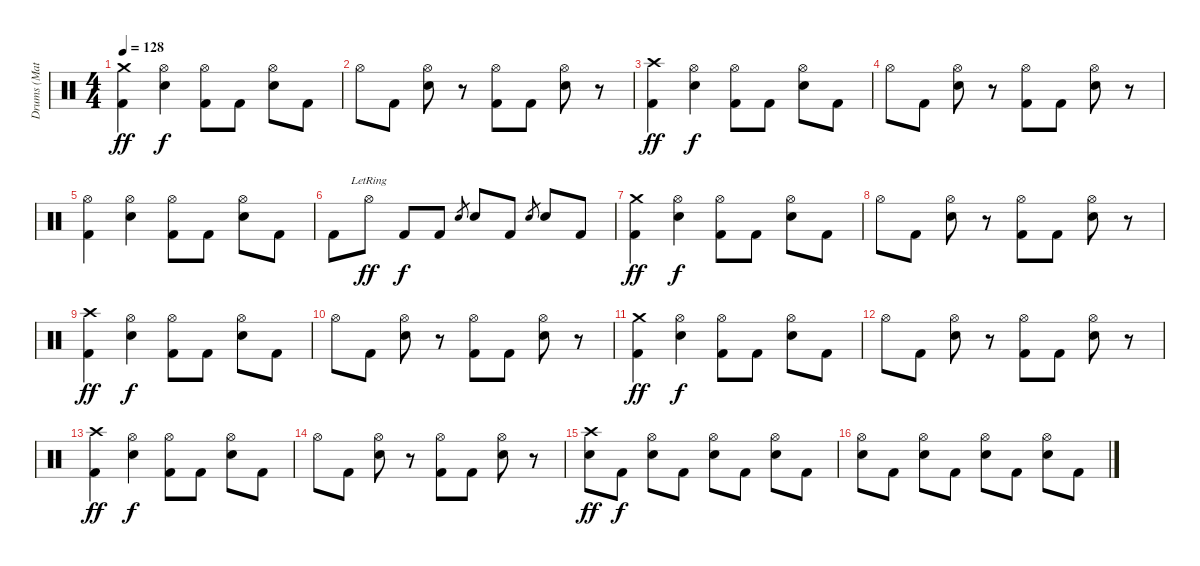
\track ("Drums (Matt Sorum)" "Drums (Mat") {instrument percussion}
\staff {score}
\articulation defaults
\ts (4 4)
\tempo 128
\clef neutral
\ks c
("Crash medium (hit)" "Kick (hit) 2").4{dy ff} ("Hi-Hat (open)" "Snare (hit) 2").4{dy f} ("Hi-Hat (open)" "Kick (hit) 2").8 "Kick (hit) 2".8 ("Hi-Hat (open)" "Snare (hit) 2").8 "Kick (hit) 2".8 |
"Hi-Hat (open)".8 "Kick (hit) 2".8 ("Hi-Hat (open)" "Snare (hit) 2").8 r.8 ("Hi-Hat (open)" "Kick (hit) 2").8 "Kick (hit) 2".8 ("Hi-Hat (open)" "Snare (hit) 2").8 r.8 |
("Crash high (hit)" "Kick (hit) 2").4{dy ff} ("Hi-Hat (open)" "Snare (hit) 2").4{dy f} ("Hi-Hat (open)" "Kick (hit) 2").8 "Kick (hit) 2".8 ("Hi-Hat (open)" "Snare (hit) 2").8 "Kick (hit) 2".8 |
"Hi-Hat (open)".8 "Kick (hit) 2".8 ("Hi-Hat (open)" "Snare (hit) 2").8 r.8 ("Hi-Hat (open)" "Kick (hit) 2").8 "Kick (hit) 2".8 ("Hi-Hat (open)" "Snare (hit) 2").8 r.8 |
("Hi-Hat (open)" "Kick (hit) 2").4 ("Hi-Hat (open)" "Snare (hit) 2").4 ("Hi-Hat (open)" "Kick (hit) 2").8 "Kick (hit) 2".8 ("Hi-Hat (open)" "Snare (hit) 2").8 "Kick (hit) 2".8 |
"Kick (hit) 2".8 "Hi-Hat (open)"{lr}.8{dy ff} "Kick (hit) 2".8{dy f} "Kick (hit) 2".8 "Snare (hit) 2".8{gr} "Snare (hit) 2".8 "Kick (hit) 2".8 "Snare (hit) 2".8{gr} "Snare (hit) 2".8 "Kick (hit) 2".8 |
("Crash medium (hit)" "Kick (hit) 2").4{dy ff} ("Hi-Hat (open)" "Snare (hit) 2").4{dy f} ("Hi-Hat (open)" "Kick (hit) 2").8 "Kick (hit) 2".8 ("Hi-Hat (open)" "Snare (hit) 2").8 "Kick (hit) 2".8 |
"Hi-Hat (open)".8 "Kick (hit) 2".8 ("Hi-Hat (open)" "Snare (hit) 2").8 r.8 ("Hi-Hat (open)" "Kick (hit) 2").8 "Kick (hit) 2".8 ("Hi-Hat (open)" "Snare (hit) 2").8 r.8 |
("Crash high (hit)" "Kick (hit) 2").4{dy ff} ("Hi-Hat (open)" "Snare (hit) 2").4{dy f} ("Hi-Hat (open)" "Kick (hit) 2").8 "Kick (hit) 2".8 ("Hi-Hat (open)" "Snare (hit) 2").8 "Kick (hit) 2".8 |
"Hi-Hat (open)".8 "Kick (hit) 2".8 ("Hi-Hat (open)" "Snare (hit) 2").8 r.8 ("Hi-Hat (open)" "Kick (hit) 2").8 "Kick (hit) 2".8 ("Hi-Hat (open)" "Snare (hit) 2").8 r.8 |
("Crash medium (hit)" "Kick (hit) 2").4{dy ff} ("Hi-Hat (open)" "Snare (hit) 2").4{dy f} ("Hi-Hat (open)" "Kick (hit) 2").8 "Kick (hit) 2".8 ("Hi-Hat (open)" "Snare (hit) 2").8 "Kick (hit) 2".8 |
"Hi-Hat (open)".8 "Kick (hit) 2".8 ("Hi-Hat (open)" "Snare (hit) 2").8 r.8 ("Hi-Hat (open)" "Kick (hit) 2").8 "Kick (hit) 2".8 ("Hi-Hat (open)" "Snare (hit) 2").8 r.8 |
("Crash high (hit)" "Kick (hit) 2").4{dy ff} ("Hi-Hat (open)" "Snare (hit) 2").4{dy f} ("Hi-Hat (open)" "Kick (hit) 2").8 "Kick (hit) 2".8 ("Hi-Hat (open)" "Snare (hit) 2").8 "Kick (hit) 2".8 |
"Hi-Hat (open)".8 "Kick (hit) 2".8 ("Hi-Hat (open)" "Snare (hit) 2").8 r.8 ("Hi-Hat (open)" "Kick (hit) 2").8 "Kick (hit) 2".8 ("Hi-Hat (open)" "Snare (hit) 2").8 r.8 |
("Crash high (hit)" "Snare (hit) 2").8{dy ff} "Kick (hit) 2".8{dy f} ("Hi-Hat (open)" "Snare (hit) 2").8 "Kick (hit) 2".8 ("Hi-Hat (open)" "Snare (hit) 2").8 "Kick (hit) 2".8 ("Hi-Hat (open)" "Snare (hit) 2").8 "Kick (hit) 2".8 |
("Hi-Hat (open)" "Snare (hit) 2").8 "Kick (hit) 2".8 ("Hi-Hat (open)" "Snare (hit) 2").8 "Kick (hit) 2".8 ("Hi-Hat (open)" "Snare (hit) 2").8 "Kick (hit) 2".8 ("Hi-Hat (open)" "Snare (hit) 2").8 "Kick (hit) 2".8
